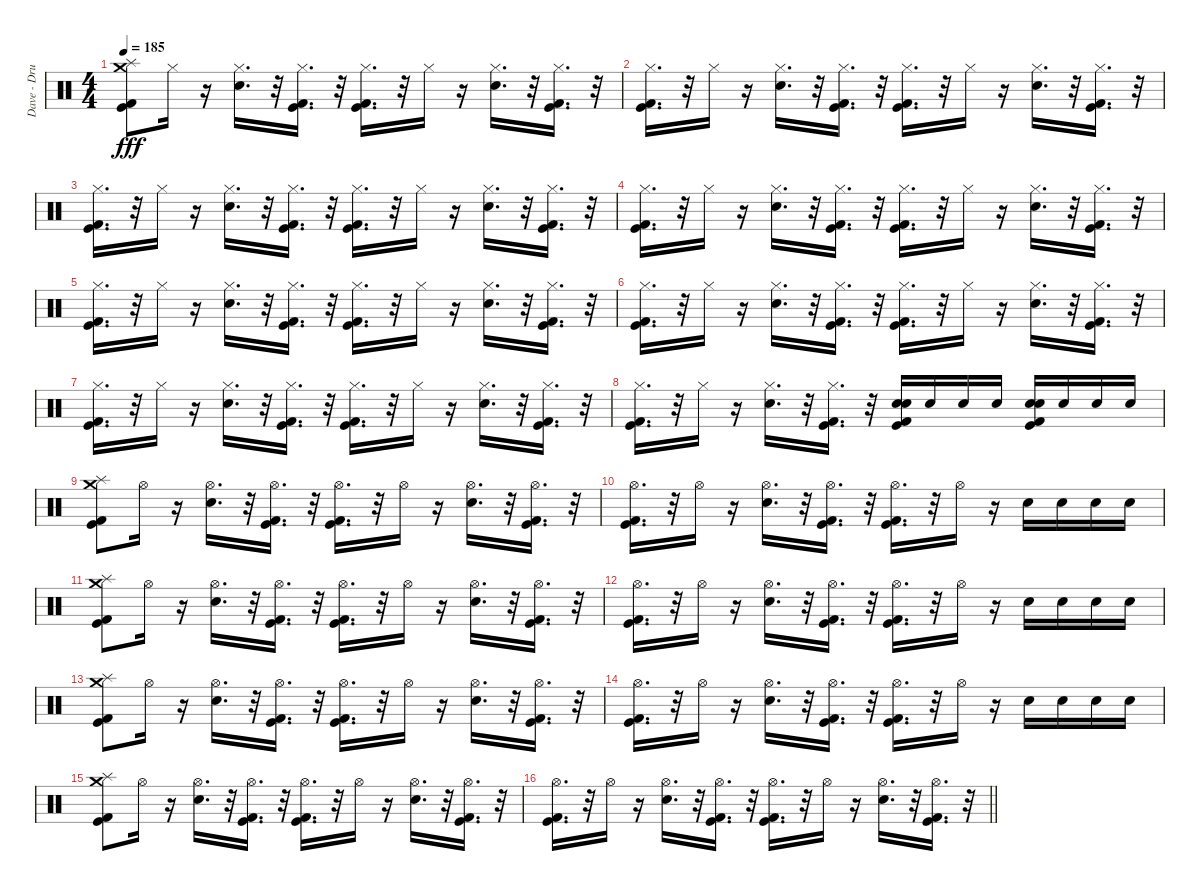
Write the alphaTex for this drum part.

\track ("Dave - Drums" "Dave - Dru") {instrument percussion}
\staff {score}
\articulation defaults
\ts (4 4)
\tempo 185
\clef neutral
\ks c
("Kick (hit)" "Kick (hit) 2" "Splash (hit)" "Crash medium (hit)").8{dy fff} "Hi-Hat (closed)".16 r.16 ("Hi-Hat (closed)" "Electric Snare (hit)").16{d} r.32 ("Hi-Hat (closed)" "Kick (hit)" "Kick (hit) 2").16{d} r.32 ("Kick (hit)" "Kick (hit) 2" "Hi-Hat (closed)").16{d} r.32 "Hi-Hat (closed)".16 r.16 ("Hi-Hat (closed)" "Electric Snare (hit)").16{d} r.32 ("Hi-Hat (closed)" "Kick (hit)" "Kick (hit) 2").16{d} r.32 |
("Kick (hit)" "Kick (hit) 2" "Hi-Hat (closed)").16{d} r.32 "Hi-Hat (closed)".16 r.16 ("Hi-Hat (closed)" "Electric Snare (hit)").16{d} r.32 ("Hi-Hat (closed)" "Kick (hit)" "Kick (hit) 2").16{d} r.32 ("Kick (hit)" "Kick (hit) 2" "Hi-Hat (closed)").16{d} r.32 "Hi-Hat (closed)".16 r.16 ("Hi-Hat (closed)" "Electric Snare (hit)").16{d} r.32 ("Hi-Hat (closed)" "Kick (hit)" "Kick (hit) 2").16{d} r.32 |
("Kick (hit)" "Kick (hit) 2" "Hi-Hat (closed)").16{d} r.32 "Hi-Hat (closed)".16 r.16 ("Hi-Hat (closed)" "Electric Snare (hit)").16{d} r.32 ("Hi-Hat (closed)" "Kick (hit)" "Kick (hit) 2").16{d} r.32 ("Kick (hit)" "Kick (hit) 2" "Hi-Hat (closed)").16{d} r.32 "Hi-Hat (closed)".16 r.16 ("Hi-Hat (closed)" "Electric Snare (hit)").16{d} r.32 ("Hi-Hat (closed)" "Kick (hit)" "Kick (hit) 2").16{d} r.32 |
("Kick (hit)" "Kick (hit) 2" "Hi-Hat (closed)").16{d} r.32 "Hi-Hat (closed)".16 r.16 ("Hi-Hat (closed)" "Electric Snare (hit)").16{d} r.32 ("Hi-Hat (closed)" "Kick (hit)" "Kick (hit) 2").16{d} r.32 ("Kick (hit)" "Kick (hit) 2" "Hi-Hat (closed)").16{d} r.32 "Hi-Hat (closed)".16 r.16 ("Hi-Hat (closed)" "Electric Snare (hit)").16{d} r.32 ("Hi-Hat (closed)" "Kick (hit)" "Kick (hit) 2").16{d} r.32 |
("Kick (hit)" "Kick (hit) 2" "Hi-Hat (closed)").16{d} r.32 "Hi-Hat (closed)".16 r.16 ("Hi-Hat (closed)" "Electric Snare (hit)").16{d} r.32 ("Hi-Hat (closed)" "Kick (hit)" "Kick (hit) 2").16{d} r.32 ("Kick (hit)" "Kick (hit) 2" "Hi-Hat (closed)").16{d} r.32 "Hi-Hat (closed)".16 r.16 ("Hi-Hat (closed)" "Electric Snare (hit)").16{d} r.32 ("Hi-Hat (closed)" "Kick (hit)" "Kick (hit) 2").16{d} r.32 |
("Kick (hit)" "Kick (hit) 2" "Hi-Hat (closed)").16{d} r.32 "Hi-Hat (closed)".16 r.16 ("Hi-Hat (closed)" "Electric Snare (hit)").16{d} r.32 ("Hi-Hat (closed)" "Kick (hit)" "Kick (hit) 2").16{d} r.32 ("Kick (hit)" "Kick (hit) 2" "Hi-Hat (closed)").16{d} r.32 "Hi-Hat (closed)".16 r.16 ("Hi-Hat (closed)" "Electric Snare (hit)").16{d} r.32 ("Hi-Hat (closed)" "Kick (hit)" "Kick (hit) 2").16{d} r.32 |
("Kick (hit)" "Kick (hit) 2" "Hi-Hat (closed)").16{d} r.32 "Hi-Hat (closed)".16 r.16 ("Hi-Hat (closed)" "Electric Snare (hit)").16{d} r.32 ("Hi-Hat (closed)" "Kick (hit)" "Kick (hit) 2").16{d} r.32 ("Kick (hit)" "Kick (hit) 2" "Hi-Hat (closed)").16{d} r.32 "Hi-Hat (closed)".16 r.16 ("Hi-Hat (closed)" "Electric Snare (hit)").16{d} r.32 ("Hi-Hat (closed)" "Kick (hit)" "Kick (hit) 2").16{d} r.32 |
("Kick (hit)" "Kick (hit) 2" "Hi-Hat (closed)").16{d} r.32 "Hi-Hat (closed)".16 r.16 ("Hi-Hat (closed)" "Electric Snare (hit)").16{d} r.32 ("Hi-Hat (closed)" "Kick (hit)" "Kick (hit) 2").16{d} r.32 ("Electric Snare (hit)" "Snare (hit) 2" "Kick (hit)" "Kick (hit) 2").16 "Electric Snare (hit)".16 "Electric Snare (hit)".16 "Electric Snare (hit)".16 ("Electric Snare (hit)" "Snare (hit) 2" "Kick (hit)" "Kick (hit) 2").16 "Electric Snare (hit)".16 "Electric Snare (hit)".16 "Electric Snare (hit)".16 |
("Kick (hit) 2" "Kick (hit)" "Splash (hit)" "Crash medium (hit)").8 "Hi-Hat (open)".16 r.16 ("Electric Snare (hit)" "Hi-Hat (open)").16{d} r.32 ("Kick (hit) 2" "Kick (hit)" "Hi-Hat (open)").16{d} r.32 ("Kick (hit)" "Kick (hit) 2" "Hi-Hat (open)").16{d} r.32 "Hi-Hat (open)".16 r.16 ("Electric Snare (hit)" "Hi-Hat (open)").16{d} r.32 ("Kick (hit)" "Kick (hit) 2" "Hi-Hat (open)").16{d} r.32 |
("Kick (hit)" "Kick (hit) 2" "Hi-Hat (open)").16{d} r.32 "Hi-Hat (open)".16 r.16 ("Electric Snare (hit)" "Hi-Hat (open)").16{d} r.32 ("Hi-Hat (open)" "Kick (hit)" "Kick (hit) 2").16{d} r.32 ("Kick (hit)" "Kick (hit) 2" "Hi-Hat (open)").16{d} r.32 "Hi-Hat (open)".16 r.16 "Electric Snare (hit)".16 "Electric Snare (hit)".16 "Electric Snare (hit)".16 "Electric Snare (hit)".16 |
("Kick (hit) 2" "Kick (hit)" "Splash (hit)" "Crash medium (hit)").8 "Hi-Hat (open)".16 r.16 ("Electric Snare (hit)" "Hi-Hat (open)").16{d} r.32 ("Kick (hit) 2" "Kick (hit)" "Hi-Hat (open)").16{d} r.32 ("Kick (hit)" "Kick (hit) 2" "Hi-Hat (open)").16{d} r.32 "Hi-Hat (open)".16 r.16 ("Electric Snare (hit)" "Hi-Hat (open)").16{d} r.32 ("Kick (hit)" "Kick (hit) 2" "Hi-Hat (open)").16{d} r.32 |
("Kick (hit)" "Kick (hit) 2" "Hi-Hat (open)").16{d} r.32 "Hi-Hat (open)".16 r.16 ("Electric Snare (hit)" "Hi-Hat (open)").16{d} r.32 ("Hi-Hat (open)" "Kick (hit)" "Kick (hit) 2").16{d} r.32 ("Kick (hit)" "Kick (hit) 2" "Hi-Hat (open)").16{d} r.32 "Hi-Hat (open)".16 r.16 "Electric Snare (hit)".16 "Electric Snare (hit)".16 "Electric Snare (hit)".16 "Electric Snare (hit)".16 |
("Kick (hit) 2" "Kick (hit)" "Splash (hit)" "Crash medium (hit)").8 "Hi-Hat (open)".16 r.16 ("Electric Snare (hit)" "Hi-Hat (open)").16{d} r.32 ("Kick (hit) 2" "Kick (hit)" "Hi-Hat (open)").16{d} r.32 ("Kick (hit)" "Kick (hit) 2" "Hi-Hat (open)").16{d} r.32 "Hi-Hat (open)".16 r.16 ("Electric Snare (hit)" "Hi-Hat (open)").16{d} r.32 ("Kick (hit)" "Kick (hit) 2" "Hi-Hat (open)").16{d} r.32 |
("Kick (hit)" "Kick (hit) 2" "Hi-Hat (open)").16{d} r.32 "Hi-Hat (open)".16 r.16 ("Electric Snare (hit)" "Hi-Hat (open)").16{d} r.32 ("Hi-Hat (open)" "Kick (hit)" "Kick (hit) 2").16{d} r.32 ("Kick (hit)" "Kick (hit) 2" "Hi-Hat (open)").16{d} r.32 "Hi-Hat (open)".16 r.16 "Electric Snare (hit)".16 "Electric Snare (hit)".16 "Electric Snare (hit)".16 "Electric Snare (hit)".16 |
("Kick (hit) 2" "Kick (hit)" "Splash (hit)" "Crash medium (hit)").8 "Hi-Hat (open)".16 r.16 ("Electric Snare (hit)" "Hi-Hat (open)").16{d} r.32 ("Kick (hit) 2" "Kick (hit)" "Hi-Hat (open)").16{d} r.32 ("Kick (hit)" "Kick (hit) 2" "Hi-Hat (open)").16{d} r.32 "Hi-Hat (open)".16 r.16 ("Electric Snare (hit)" "Hi-Hat (open)").16{d} r.32 ("Kick (hit)" "Kick (hit) 2" "Hi-Hat (open)").16{d} r.32 |
\barLineRight lightlight
("Kick (hit)" "Kick (hit) 2" "Hi-Hat (open)").16{d} r.32 "Hi-Hat (open)".16 r.16 ("Electric Snare (hit)" "Hi-Hat (open)").16{d} r.32 ("Hi-Hat (open)" "Kick (hit)" "Kick (hit) 2").16{d} r.32 ("Kick (hit)" "Kick (hit) 2" "Hi-Hat (open)").16{d} r.32 "Hi-Hat (open)".16 r.16 ("Hi-Hat (open)" "Electric Snare (hit)").16{d} r.32 ("Hi-Hat (open)" "Kick (hit)" "Kick (hit) 2").16{d} r.32
